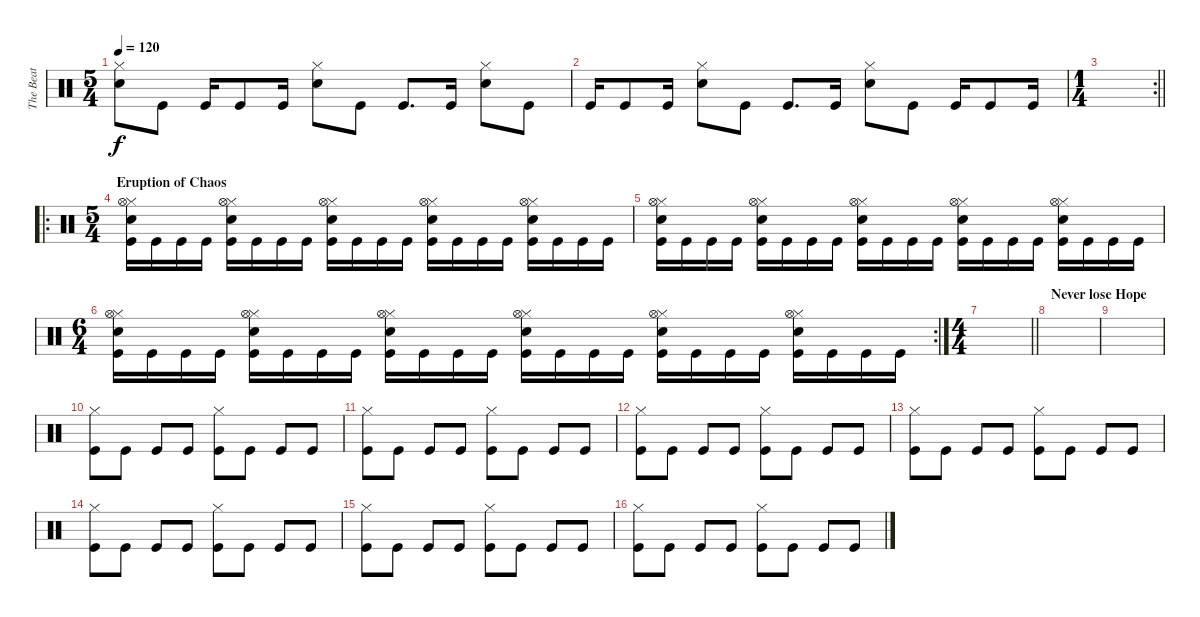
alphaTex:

\track ("The Beat" "The Beat") {instrument percussion}
\staff {score}
\articulation defaults
\ts (5 4)
\tempo 120
\clef neutral
\ks c
("Hi-Hat (closed)" "Snare (hit) 2").8{dy f} "Kick (hit)".8 "Kick (hit)".16 "Kick (hit)".8 "Kick (hit)".16 ("Hi-Hat (closed)" "Snare (hit) 2").8 "Kick (hit)".8 "Kick (hit)".8{d} "Kick (hit)".16 ("Hi-Hat (closed)" "Snare (hit) 2").8 "Kick (hit)".8 |
"Kick (hit)".16 "Kick (hit)".8 "Kick (hit)".16 ("Hi-Hat (closed)" "Snare (hit) 2").8 "Kick (hit)".8 "Kick (hit)".8{d} "Kick (hit)".16 ("Hi-Hat (closed)" "Snare (hit) 2").8 "Kick (hit)".8 "Kick (hit)".16 "Kick (hit)".8 "Kick (hit)".16 |
\rc 2
\ts (1 4)
\barLineRight lightlight
|
\ro
\ts (5 4)
\section ("" "Eruption of Chaos")
("Kick (hit)" "Hi-Hat (closed)" "Snare (hit) 2" "Hi-Hat (open)").16 "Kick (hit)".16 "Kick (hit)".16 "Kick (hit)".16 ("Kick (hit)" "Hi-Hat (closed)" "Snare (hit) 2" "Hi-Hat (open)").16 "Kick (hit)".16 "Kick (hit)".16 "Kick (hit)".16 ("Kick (hit)" "Hi-Hat (closed)" "Snare (hit) 2" "Hi-Hat (open)").16 "Kick (hit)".16 "Kick (hit)".16 "Kick (hit)".16 ("Kick (hit)" "Hi-Hat (closed)" "Snare (hit) 2" "Hi-Hat (open)").16 "Kick (hit)".16 "Kick (hit)".16 "Kick (hit)".16 ("Kick (hit)" "Hi-Hat (closed)" "Snare (hit) 2" "Hi-Hat (open)").16 "Kick (hit)".16 "Kick (hit)".16 "Kick (hit)".16 |
("Kick (hit)" "Hi-Hat (closed)" "Snare (hit) 2" "Hi-Hat (open)").16 "Kick (hit)".16 "Kick (hit)".16 "Kick (hit)".16 ("Kick (hit)" "Hi-Hat (closed)" "Snare (hit) 2" "Hi-Hat (open)").16 "Kick (hit)".16 "Kick (hit)".16 "Kick (hit)".16 ("Kick (hit)" "Hi-Hat (closed)" "Snare (hit) 2" "Hi-Hat (open)").16 "Kick (hit)".16 "Kick (hit)".16 "Kick (hit)".16 ("Kick (hit)" "Hi-Hat (closed)" "Snare (hit) 2" "Hi-Hat (open)").16 "Kick (hit)".16 "Kick (hit)".16 "Kick (hit)".16 ("Kick (hit)" "Hi-Hat (closed)" "Snare (hit) 2" "Hi-Hat (open)").16 "Kick (hit)".16 "Kick (hit)".16 "Kick (hit)".16 |
\rc 2
\ts (6 4)
("Kick (hit)" "Hi-Hat (closed)" "Snare (hit) 2" "Hi-Hat (open)").16 "Kick (hit)".16 "Kick (hit)".16 "Kick (hit)".16 ("Kick (hit)" "Hi-Hat (closed)" "Snare (hit) 2" "Hi-Hat (open)").16 "Kick (hit)".16 "Kick (hit)".16 "Kick (hit)".16 ("Kick (hit)" "Hi-Hat (closed)" "Snare (hit) 2" "Hi-Hat (open)").16 "Kick (hit)".16 "Kick (hit)".16 "Kick (hit)".16 ("Kick (hit)" "Hi-Hat (closed)" "Snare (hit) 2" "Hi-Hat (open)").16 "Kick (hit)".16 "Kick (hit)".16 "Kick (hit)".16 ("Kick (hit)" "Hi-Hat (closed)" "Snare (hit) 2" "Hi-Hat (open)").16 "Kick (hit)".16 "Kick (hit)".16 "Kick (hit)".16 ("Kick (hit)" "Hi-Hat (closed)" "Snare (hit) 2" "Hi-Hat (open)").16 "Kick (hit)".16 "Kick (hit)".16 "Kick (hit)".16 |
\ts (4 4)
\barLineRight lightlight
|
\section ("" "Never lose Hope")
|
|
("Kick (hit)" "Hi-Hat (closed)").8 "Kick (hit)".8 "Kick (hit)".8 "Kick (hit)".8 ("Kick (hit)" "Hi-Hat (closed)").8 "Kick (hit)".8 "Kick (hit)".8 "Kick (hit)".8 |
("Kick (hit)" "Hi-Hat (closed)").8 "Kick (hit)".8 "Kick (hit)".8 "Kick (hit)".8 ("Kick (hit)" "Hi-Hat (closed)").8 "Kick (hit)".8 "Kick (hit)".8 "Kick (hit)".8 |
("Kick (hit)" "Hi-Hat (closed)").8 "Kick (hit)".8 "Kick (hit)".8 "Kick (hit)".8 ("Kick (hit)" "Hi-Hat (closed)").8 "Kick (hit)".8 "Kick (hit)".8 "Kick (hit)".8 |
("Kick (hit)" "Hi-Hat (closed)").8 "Kick (hit)".8 "Kick (hit)".8 "Kick (hit)".8 ("Kick (hit)" "Hi-Hat (closed)").8 "Kick (hit)".8 "Kick (hit)".8 "Kick (hit)".8 |
("Kick (hit)" "Hi-Hat (closed)").8 "Kick (hit)".8 "Kick (hit)".8 "Kick (hit)".8 ("Kick (hit)" "Hi-Hat (closed)").8 "Kick (hit)".8 "Kick (hit)".8 "Kick (hit)".8 |
("Kick (hit)" "Hi-Hat (closed)").8 "Kick (hit)".8 "Kick (hit)".8 "Kick (hit)".8 ("Kick (hit)" "Hi-Hat (closed)").8 "Kick (hit)".8 "Kick (hit)".8 "Kick (hit)".8 |
("Kick (hit)" "Hi-Hat (closed)").8 "Kick (hit)".8 "Kick (hit)".8 "Kick (hit)".8 ("Kick (hit)" "Hi-Hat (closed)").8 "Kick (hit)".8 "Kick (hit)".8 "Kick (hit)".8
